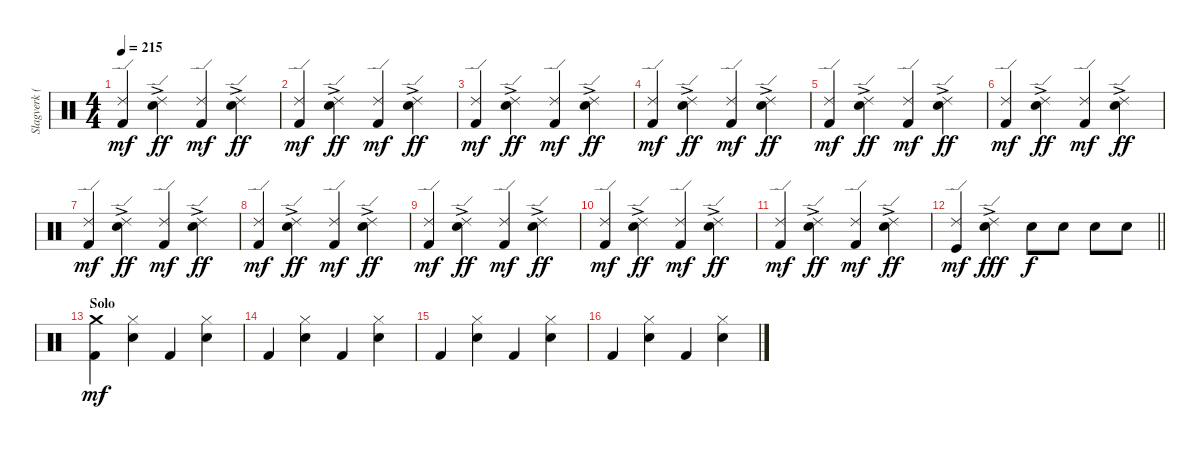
\track ("Slagverk (Jan Kristiansen)" "Slagverk (") {instrument percussion}
\staff {score}
\articulation defaults
\ts (4 4)
\tempo 215
\clef neutral
\ks c
("Ride (edge) 2" "Kick (hit) 2").4{dy mf} ("Ride (edge) 2"{ac} "Snare (hit) 2").4{dy ff} ("Ride (edge) 2" "Kick (hit) 2").4{dy mf} ("Ride (edge) 2"{ac} "Snare (hit) 2").4{dy ff} |
("Ride (edge) 2" "Kick (hit) 2").4{dy mf} ("Ride (edge) 2"{ac} "Snare (hit) 2").4{dy ff} ("Ride (edge) 2" "Kick (hit) 2").4{dy mf} ("Ride (edge) 2"{ac} "Snare (hit) 2").4{dy ff} |
("Ride (edge) 2" "Kick (hit) 2").4{dy mf} ("Ride (edge) 2"{ac} "Snare (hit) 2").4{dy ff} ("Ride (edge) 2" "Kick (hit) 2").4{dy mf} ("Ride (edge) 2"{ac} "Snare (hit) 2").4{dy ff} |
("Ride (edge) 2" "Kick (hit) 2").4{dy mf} ("Ride (edge) 2"{ac} "Snare (hit) 2").4{dy ff} ("Ride (edge) 2" "Kick (hit) 2").4{dy mf} ("Ride (edge) 2"{ac} "Snare (hit) 2").4{dy ff} |
("Ride (edge) 2" "Kick (hit) 2").4{dy mf} ("Ride (edge) 2"{ac} "Snare (hit) 2").4{dy ff} ("Ride (edge) 2" "Kick (hit) 2").4{dy mf} ("Ride (edge) 2"{ac} "Snare (hit) 2").4{dy ff} |
("Ride (edge) 2" "Kick (hit) 2").4{dy mf} ("Ride (edge) 2"{ac} "Snare (hit) 2").4{dy ff} ("Ride (edge) 2" "Kick (hit) 2").4{dy mf} ("Ride (edge) 2"{ac} "Snare (hit) 2").4{dy ff} |
("Ride (edge) 2" "Kick (hit) 2").4{dy mf} ("Ride (edge) 2"{ac} "Snare (hit) 2").4{dy ff} ("Ride (edge) 2" "Kick (hit) 2").4{dy mf} ("Ride (edge) 2"{ac} "Snare (hit) 2").4{dy ff} |
("Ride (edge) 2" "Kick (hit) 2").4{dy mf} ("Ride (edge) 2"{ac} "Snare (hit) 2").4{dy ff} ("Ride (edge) 2" "Kick (hit) 2").4{dy mf} ("Ride (edge) 2"{ac} "Snare (hit) 2").4{dy ff} |
("Ride (edge) 2" "Kick (hit) 2").4{dy mf} ("Ride (edge) 2"{ac} "Snare (hit) 2").4{dy ff} ("Ride (edge) 2" "Kick (hit) 2").4{dy mf} ("Ride (edge) 2"{ac} "Snare (hit) 2").4{dy ff} |
("Ride (edge) 2" "Kick (hit) 2").4{dy mf} ("Ride (edge) 2"{ac} "Snare (hit) 2").4{dy ff} ("Ride (edge) 2" "Kick (hit) 2").4{dy mf} ("Ride (edge) 2"{ac} "Snare (hit) 2").4{dy ff} |
("Ride (edge) 2" "Kick (hit) 2").4{dy mf} ("Ride (edge) 2"{ac} "Snare (hit) 2").4{dy ff} ("Ride (edge) 2" "Kick (hit) 2").4{dy mf} ("Ride (edge) 2"{ac} "Snare (hit) 2").4{dy ff} |
\barLineRight lightlight
("Ride (edge) 2" "Kick (hit)").4{dy mf} ("Ride (edge) 2"{ac} "Snare (hit) 2").4{dy fff} "Snare (hit) 2".8{dy f} "Snare (hit) 2".8 "Snare (hit) 2".8 "Snare (hit) 2".8 |
\section ("" "Solo")
("Crash medium (hit)" "Kick (hit) 2").4{dy mf} ("Hi-Hat (closed)" "Snare (hit) 2").4 "Kick (hit) 2".4 ("Hi-Hat (closed)" "Snare (hit) 2").4 |
"Kick (hit) 2".4 ("Hi-Hat (closed)" "Snare (hit) 2").4 "Kick (hit) 2".4 ("Hi-Hat (closed)" "Snare (hit) 2").4 |
"Kick (hit) 2".4 ("Hi-Hat (closed)" "Snare (hit) 2").4 "Kick (hit) 2".4 ("Hi-Hat (closed)" "Snare (hit) 2").4 |
"Kick (hit) 2".4 ("Hi-Hat (closed)" "Snare (hit) 2").4 "Kick (hit) 2".4 ("Hi-Hat (closed)" "Snare (hit) 2").4
